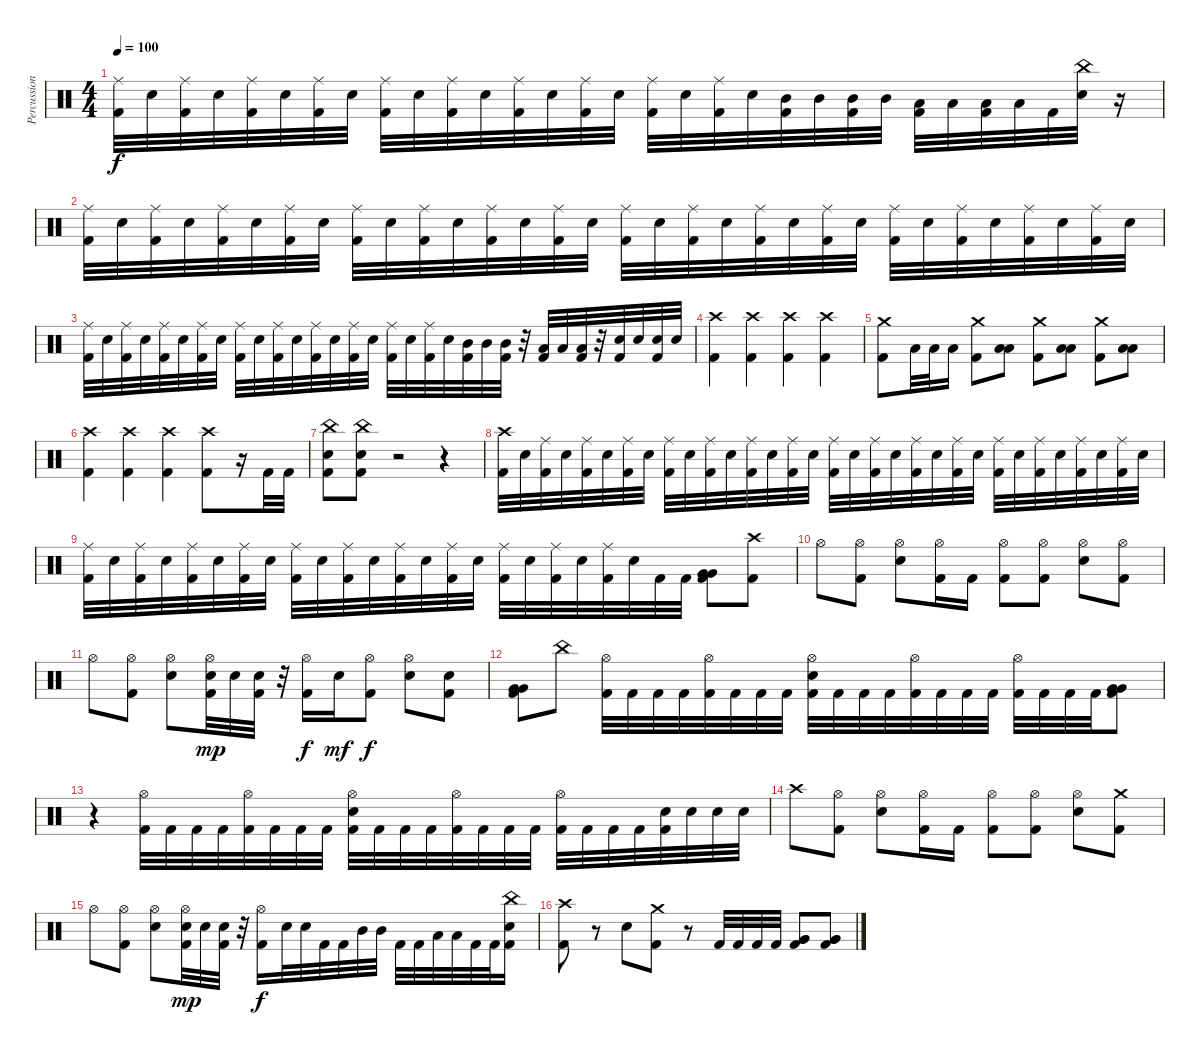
\track ("Percussions" "Percussion") {instrument percussion}
\staff {score}
\articulation defaults
\ts (4 4)
\tempo 100
\clef neutral
\ks c
("Kick (hit) 2" "Ride (middle)").32{dy f} "Electric Snare (hit)".32 ("Kick (hit) 2" "Ride (middle)").32 "Electric Snare (hit)".32 ("Kick (hit) 2" "Ride (middle)").32 "Electric Snare (hit)".32 ("Kick (hit) 2" "Ride (middle)").32 "Electric Snare (hit)".32 ("Kick (hit) 2" "Ride (middle)").32 "Electric Snare (hit)".32 ("Kick (hit) 2" "Ride (middle)").32 "Electric Snare (hit)".32 ("Kick (hit) 2" "Ride (middle)").32 "Electric Snare (hit)".32 ("Kick (hit) 2" "Ride (middle)").32 "Electric Snare (hit)".32 ("Kick (hit) 2" "Ride (middle)").32 "Electric Snare (hit)".32 ("Kick (hit) 2" "Ride (middle)").32 "Electric Snare (hit)".32 ("Kick (hit) 2" "Mid Tom (hit)").32 "Mid Tom (hit)".32 ("Kick (hit) 2" "Mid Tom (hit)").32 "Mid Tom (hit)".32 ("Kick (hit) 2" "Low Tom (hit)").32 "Low Tom (hit)".32 ("Kick (hit) 2" "Low Tom (hit)").32 "Low Tom (hit)".32 "Kick (hit) 2".32 ("China (hit)" "Electric Snare (hit)").32 r.16 |
("Kick (hit) 2" "Ride (middle)").32 "Electric Snare (hit)".32 ("Kick (hit) 2" "Ride (middle)").32 "Electric Snare (hit)".32 ("Kick (hit) 2" "Ride (middle)").32 "Electric Snare (hit)".32 ("Kick (hit) 2" "Ride (middle)").32 "Electric Snare (hit)".32 ("Kick (hit) 2" "Ride (middle)").32 "Electric Snare (hit)".32 ("Kick (hit) 2" "Ride (middle)").32 "Electric Snare (hit)".32 ("Kick (hit) 2" "Ride (middle)").32 "Electric Snare (hit)".32 ("Kick (hit) 2" "Ride (middle)").32 "Electric Snare (hit)".32 ("Kick (hit) 2" "Ride (middle)").32 "Electric Snare (hit)".32 ("Kick (hit) 2" "Ride (middle)").32 "Electric Snare (hit)".32 ("Kick (hit) 2" "Ride (middle)").32 "Electric Snare (hit)".32 ("Kick (hit) 2" "Ride (middle)").32 "Electric Snare (hit)".32 ("Kick (hit) 2" "Ride (middle)").32 "Electric Snare (hit)".32 ("Kick (hit) 2" "Ride (middle)").32 "Electric Snare (hit)".32 ("Kick (hit) 2" "Ride (middle)").32 "Electric Snare (hit)".32 ("Kick (hit) 2" "Ride (middle)").32 "Electric Snare (hit)".32 |
("Kick (hit) 2" "Ride (middle)").32 "Electric Snare (hit)".32 ("Kick (hit) 2" "Ride (middle)").32 "Electric Snare (hit)".32 ("Kick (hit) 2" "Ride (middle)").32 "Electric Snare (hit)".32 ("Kick (hit) 2" "Ride (middle)").32 "Electric Snare (hit)".32 ("Kick (hit) 2" "Ride (middle)").32 "Electric Snare (hit)".32 ("Kick (hit) 2" "Ride (middle)").32 "Electric Snare (hit)".32 ("Kick (hit) 2" "Ride (middle)").32 "Electric Snare (hit)".32 ("Kick (hit) 2" "Ride (middle)").32 "Electric Snare (hit)".32 ("Kick (hit) 2" "Ride (middle)").32 "Electric Snare (hit)".32 ("Kick (hit) 2" "Ride (middle)").32 "Electric Snare (hit)".32 ("Kick (hit) 2" "Mid Tom (hit)").32 "Mid Tom (hit)".32 ("Kick (hit) 2" "Mid Tom (hit)").32 r.32 ("Kick (hit) 2" "Low Tom (hit)").32 "Low Tom (hit)".32 ("Kick (hit) 2" "Low Tom (hit)").32 r.32 ("Kick (hit) 2" "Electric Snare (hit)").32 "Electric Snare (hit)".32 ("Kick (hit) 2" "Electric Snare (hit)").32 "Electric Snare (hit)".32 |
("Kick (hit) 2" "Crash high (hit)").4 ("Kick (hit) 2" "Crash high (hit)").4 ("Kick (hit) 2" "Crash high (hit)").4 ("Kick (hit) 2" "Crash high (hit)").4 |
("Kick (hit) 2" "Crash medium (hit)").8 "Low Tom (hit)".32 "Low Tom (hit)".32 "Low Tom (hit)".16 ("Kick (hit) 2" "Crash medium (hit)").8 ("Low Tom (hit)" "Low Tom (hit)").8 ("Kick (hit) 2" "Crash medium (hit)").8 ("Low Tom (hit)" "Low Tom (hit)").8 ("Kick (hit) 2" "Crash medium (hit)").8 ("Low Tom (hit)" "Low Tom (hit)").8 |
("Kick (hit) 2" "Crash high (hit)").4 ("Kick (hit) 2" "Crash high (hit)").4 ("Kick (hit) 2" "Crash high (hit)").4 ("Kick (hit) 2" "Crash high (hit)").8 r.16 "Kick (hit) 2".32 "Kick (hit) 2".32 |
("Kick (hit) 2" "China (hit)" "Electric Snare (hit)").8 ("Kick (hit) 2" "China (hit)" "Electric Snare (hit)").8 r.2 r.4 |
("Kick (hit) 2" "Crash high (hit)").32 "Electric Snare (hit)".32 ("Kick (hit) 2" "Ride (middle)").32 "Electric Snare (hit)".32 ("Kick (hit) 2" "Ride (middle)").32 "Electric Snare (hit)".32 ("Kick (hit) 2" "Ride (middle)").32 "Electric Snare (hit)".32 ("Kick (hit) 2" "Ride (middle)").32 "Electric Snare (hit)".32 ("Kick (hit) 2" "Ride (middle)").32 "Electric Snare (hit)".32 ("Kick (hit) 2" "Ride (middle)").32 "Electric Snare (hit)".32 ("Kick (hit) 2" "Ride (middle)").32 "Electric Snare (hit)".32 ("Kick (hit) 2" "Ride (middle)").32 "Electric Snare (hit)".32 ("Kick (hit) 2" "Ride (middle)").32 "Electric Snare (hit)".32 ("Kick (hit) 2" "Ride (middle)").32 "Electric Snare (hit)".32 ("Kick (hit) 2" "Ride (middle)").32 "Electric Snare (hit)".32 ("Kick (hit) 2" "Ride (middle)").32 "Electric Snare (hit)".32 ("Kick (hit) 2" "Ride (middle)").32 "Electric Snare (hit)".32 ("Kick (hit) 2" "Ride (middle)").32 "Electric Snare (hit)".32 ("Kick (hit) 2" "Ride (middle)").32 "Electric Snare (hit)".32 |
("Kick (hit) 2" "Ride (middle)").32 "Electric Snare (hit)".32 ("Kick (hit) 2" "Ride (middle)").32 "Electric Snare (hit)".32 ("Kick (hit) 2" "Ride (middle)").32 "Electric Snare (hit)".32 ("Kick (hit) 2" "Ride (middle)").32 "Electric Snare (hit)".32 ("Kick (hit) 2" "Ride (middle)").32 "Electric Snare (hit)".32 ("Kick (hit) 2" "Ride (middle)").32 "Electric Snare (hit)".32 ("Kick (hit) 2" "Ride (middle)").32 "Electric Snare (hit)".32 ("Kick (hit) 2" "Ride (middle)").32 "Electric Snare (hit)".32 ("Kick (hit) 2" "Ride (middle)").32 "Electric Snare (hit)".32 ("Kick (hit) 2" "Ride (middle)").32 "Electric Snare (hit)".32 ("Kick (hit) 2" "Ride (middle)").32 "Electric Snare (hit)".32 "Kick (hit) 2".32 "Kick (hit) 2".32 ("Kick (hit) 2" "Very Low Tom (hit)" "Very Low Tom (hit)").8 ("Kick (hit) 2" "Crash high (hit)").8 |
"Hi-Hat (open)".8 ("Kick (hit) 2" "Hi-Hat (open)").8 ("Hi-Hat (open)" "Electric Snare (hit)").8 ("Kick (hit) 2" "Hi-Hat (open)").16 "Kick (hit) 2".16 ("Kick (hit) 2" "Hi-Hat (open)").8 ("Kick (hit) 2" "Hi-Hat (open)").8 ("Hi-Hat (open)" "Electric Snare (hit)").8 ("Kick (hit) 2" "Hi-Hat (open)").8 |
"Hi-Hat (open)".8 ("Kick (hit) 2" "Hi-Hat (open)").8 ("Hi-Hat (open)" "Electric Snare (hit)").8 ("Kick (hit) 2" "Hi-Hat (open)" "Electric Snare (hit)").32{dy mp} "Electric Snare (hit)".32 ("Kick (hit) 2" "Electric Snare (hit)").32 r.32 ("Kick (hit) 2" "Hi-Hat (open)").16{dy f} "Electric Snare (hit)".16{dy mf} ("Kick (hit) 2" "Hi-Hat (open)").8{dy f} ("Hi-Hat (open)" "Electric Snare (hit)").8 ("Kick (hit) 2" "Electric Snare (hit)").8 |
("Kick (hit) 2" "Very Low Tom (hit)" "Very Low Tom (hit)").8 "China (hit)".8 ("Kick (hit) 2" "Hi-Hat (open)").32 "Kick (hit) 2".32 "Kick (hit) 2".32 "Kick (hit) 2".32 ("Kick (hit) 2" "Hi-Hat (open)").32 "Kick (hit) 2".32 "Kick (hit) 2".32 "Kick (hit) 2".32 ("Kick (hit) 2" "Hi-Hat (open)" "Electric Snare (hit)").32 "Kick (hit) 2".32 "Kick (hit) 2".32 "Kick (hit) 2".32 ("Kick (hit) 2" "Hi-Hat (open)").32 "Kick (hit) 2".32 "Kick (hit) 2".32 "Kick (hit) 2".32 ("Kick (hit) 2" "Hi-Hat (open)").32 "Kick (hit) 2".32 "Kick (hit) 2".32 "Kick (hit) 2".32 ("Kick (hit) 2" "Very Low Tom (hit)" "Very Low Tom (hit)").8 |
r.4 ("Kick (hit) 2" "Hi-Hat (open)").32 "Kick (hit) 2".32 "Kick (hit) 2".32 "Kick (hit) 2".32 ("Kick (hit) 2" "Hi-Hat (open)").32 "Kick (hit) 2".32 "Kick (hit) 2".32 "Kick (hit) 2".32 ("Kick (hit) 2" "Hi-Hat (open)" "Electric Snare (hit)").32 "Kick (hit) 2".32 "Kick (hit) 2".32 "Kick (hit) 2".32 ("Kick (hit) 2" "Hi-Hat (open)").32 "Kick (hit) 2".32 "Kick (hit) 2".32 "Kick (hit) 2".32 ("Kick (hit) 2" "Hi-Hat (open)").32 "Kick (hit) 2".32 "Kick (hit) 2".32 "Kick (hit) 2".32 ("Kick (hit) 2" "Electric Snare (hit)").32 "Electric Snare (hit)".32 "Electric Snare (hit)".32 "Electric Snare (hit)".32 |
"Crash high (hit)".8 ("Kick (hit) 2" "Hi-Hat (open)").8 ("Hi-Hat (open)" "Electric Snare (hit)").8 ("Kick (hit) 2" "Hi-Hat (open)").16 "Kick (hit) 2".16 ("Kick (hit) 2" "Hi-Hat (open)").8 ("Kick (hit) 2" "Hi-Hat (open)").8 ("Hi-Hat (open)" "Electric Snare (hit)").8 ("Kick (hit) 2" "Crash medium (hit)").8 |
"Hi-Hat (open)".8 ("Kick (hit) 2" "Hi-Hat (open)").8 ("Hi-Hat (open)" "Electric Snare (hit)").8 ("Kick (hit) 2" "Hi-Hat (open)" "Electric Snare (hit)").32{dy mp} "Electric Snare (hit)".32 ("Kick (hit) 2" "Electric Snare (hit)").32 r.32 ("Kick (hit) 2" "Hi-Hat (open)").16{dy f} "Electric Snare (hit)".32 "Electric Snare (hit)".32 "Kick (hit) 2".32 "Kick (hit) 2".32 "Mid Tom (hit)".32 "Mid Tom (hit)".32 "Kick (hit) 2".32 "Kick (hit) 2".32 "Low Tom (hit)".32 "Low Tom (hit)".32 "Kick (hit) 2".32 "Kick (hit) 2".32 ("Kick (hit) 2" "China (hit)" "Electric Snare (hit)").16 |
("Kick (hit) 2" "Crash high (hit)").8 r.8 "Electric Snare (hit)".8 ("Kick (hit) 2" "Crash medium (hit)").8 r.8 "Kick (hit) 2".32 "Kick (hit) 2".32 "Kick (hit) 2".32 "Kick (hit) 2".32 ("Kick (hit) 2" "Very Low Tom (hit)" "Very Low Tom (hit)").8 ("Kick (hit) 2" "Very Low Tom (hit)" "Very Low Tom (hit)").8
